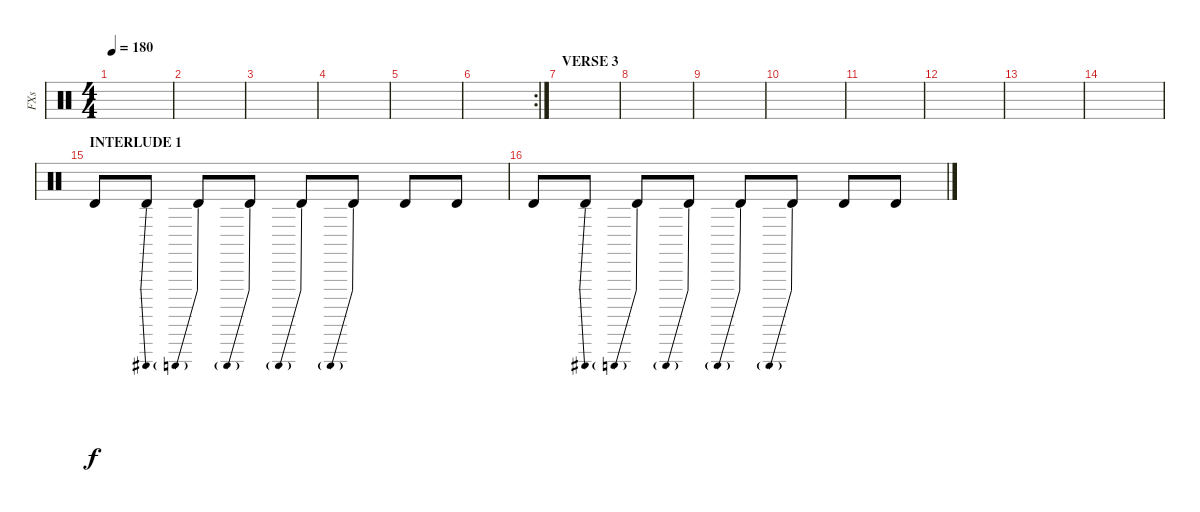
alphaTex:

\track ("FXs" "FXs") {instrument percussion}
\staff {score}
\articulation defaults
\ts (4 4)
\tempo 180
\clef neutral
\ks c
|
|
|
|
|
\rc 2
|
\section ("" "VERSE 3")
|
|
|
|
|
|
|
|
\section ("" "INTERLUDE 1")
"Timbale high (hit)".8 "Timbale high (hit)"{be (bend 0 0 60 2)}.8 "Timbale high (hit)"{be (prebend 0 2 60 2)}.8 "Timbale high (hit)"{be (prebend 0 4 60 4)}.8 "Timbale high (hit)"{be (prebend 0 6 60 6)}.8 "Timbale high (hit)"{be (prebend 0 4 60 4)}.8 "Timbale high (hit)"{be (custom 0 4 20 4 40 0 60 0)}.8 "Timbale high (hit)".8 |
"Timbale high (hit)".8 "Timbale high (hit)"{be (bend 0 0 60 2)}.8 "Timbale high (hit)"{be (prebend 0 2 60 2)}.8 "Timbale high (hit)"{be (prebend 0 4 60 4)}.8 "Timbale high (hit)"{be (prebend 0 6 60 6)}.8 "Timbale high (hit)"{be (prebend 0 4 60 4)}.8 "Timbale high (hit)"{be (custom 0 4 20 4 40 0 60 0)}.8 "Timbale high (hit)".8
